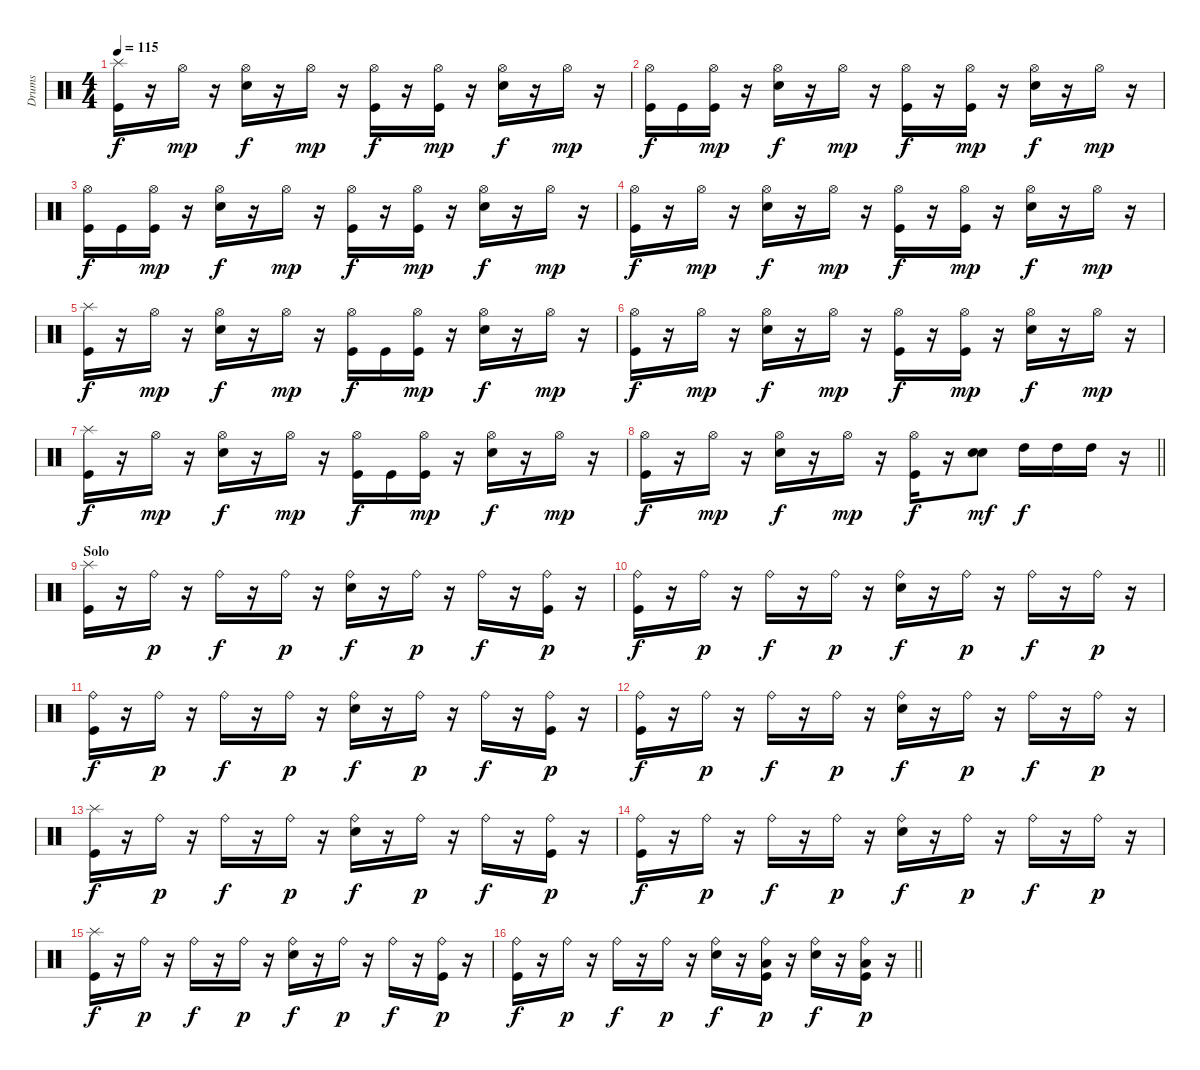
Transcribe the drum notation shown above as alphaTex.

\track ("Drums" "Drums") {instrument percussion}
\staff {score}
\articulation defaults
\ts (4 4)
\tempo 115
\clef neutral
\ks c
("Splash (hit)" "Kick (hit)").16{dy f} r.16 "Hi-Hat (open)".16{dy mp} r.16 ("Hi-Hat (open)" "Electric Snare (hit)").16{dy f} r.16 "Hi-Hat (open)".16{dy mp} r.16 ("Hi-Hat (open)" "Kick (hit)").16{dy f} r.16 ("Kick (hit)" "Hi-Hat (open)").16{dy mp} r.16 ("Hi-Hat (open)" "Electric Snare (hit)").16{dy f} r.16 "Hi-Hat (open)".16{dy mp} r.16 |
("Hi-Hat (open)" "Kick (hit)").16{dy f} "Kick (hit)".16 ("Kick (hit)" "Hi-Hat (open)").16{dy mp} r.16 ("Hi-Hat (open)" "Electric Snare (hit)").16{dy f} r.16 "Hi-Hat (open)".16{dy mp} r.16 ("Hi-Hat (open)" "Kick (hit)").16{dy f} r.16 ("Kick (hit)" "Hi-Hat (open)").16{dy mp} r.16 ("Hi-Hat (open)" "Electric Snare (hit)").16{dy f} r.16 "Hi-Hat (open)".16{dy mp} r.16 |
("Hi-Hat (open)" "Kick (hit)").16{dy f} "Kick (hit)".16 ("Kick (hit)" "Hi-Hat (open)").16{dy mp} r.16 ("Hi-Hat (open)" "Electric Snare (hit)").16{dy f} r.16 "Hi-Hat (open)".16{dy mp} r.16 ("Hi-Hat (open)" "Kick (hit)").16{dy f} r.16 ("Kick (hit)" "Hi-Hat (open)").16{dy mp} r.16 ("Hi-Hat (open)" "Electric Snare (hit)").16{dy f} r.16 "Hi-Hat (open)".16{dy mp} r.16 |
("Hi-Hat (open)" "Kick (hit)").16{dy f} r.16 "Hi-Hat (open)".16{dy mp} r.16 ("Hi-Hat (open)" "Electric Snare (hit)").16{dy f} r.16 "Hi-Hat (open)".16{dy mp} r.16 ("Hi-Hat (open)" "Kick (hit)").16{dy f} r.16 ("Kick (hit)" "Hi-Hat (open)").16{dy mp} r.16 ("Hi-Hat (open)" "Electric Snare (hit)").16{dy f} r.16 "Hi-Hat (open)".16{dy mp} r.16 |
("Splash (hit)" "Kick (hit)").16{dy f} r.16 "Hi-Hat (open)".16{dy mp} r.16 ("Hi-Hat (open)" "Electric Snare (hit)").16{dy f} r.16 "Hi-Hat (open)".16{dy mp} r.16 ("Hi-Hat (open)" "Kick (hit)").16{dy f} "Kick (hit)".16 ("Kick (hit)" "Hi-Hat (open)").16{dy mp} r.16 ("Hi-Hat (open)" "Electric Snare (hit)").16{dy f} r.16 "Hi-Hat (open)".16{dy mp} r.16 |
("Hi-Hat (open)" "Kick (hit)").16{dy f} r.16 "Hi-Hat (open)".16{dy mp} r.16 ("Hi-Hat (open)" "Electric Snare (hit)").16{dy f} r.16 "Hi-Hat (open)".16{dy mp} r.16 ("Hi-Hat (open)" "Kick (hit)").16{dy f} r.16 ("Kick (hit)" "Hi-Hat (open)").16{dy mp} r.16 ("Hi-Hat (open)" "Electric Snare (hit)").16{dy f} r.16 "Hi-Hat (open)".16{dy mp} r.16 |
("Splash (hit)" "Kick (hit)").16{dy f} r.16 "Hi-Hat (open)".16{dy mp} r.16 ("Hi-Hat (open)" "Electric Snare (hit)").16{dy f} r.16 "Hi-Hat (open)".16{dy mp} r.16 ("Hi-Hat (open)" "Kick (hit)").16{dy f} "Kick (hit)".16 ("Kick (hit)" "Hi-Hat (open)").16{dy mp} r.16 ("Hi-Hat (open)" "Electric Snare (hit)").16{dy f} r.16 "Hi-Hat (open)".16{dy mp} r.16 |
\barLineRight lightlight
("Hi-Hat (open)" "Kick (hit)").16{dy f} r.16 "Hi-Hat (open)".16{dy mp} r.16 ("Hi-Hat (open)" "Electric Snare (hit)").16{dy f} r.16 "Hi-Hat (open)".16{dy mp} r.16 ("Hi-Hat (open)" "Kick (hit)").16{dy f} r.16 ("Electric Snare (hit)" "Electric Snare (hit)").8{dy mf} "High Tom (hit)".16{dy f} "High Tom (hit)".16 "High Tom (hit)".16 r.16 |
\section ("" "Solo")
("Splash (hit)" "Kick (hit)").16 r.16 "Ride (bell)".16{dy p} r.16 "Ride (bell)".16{dy f} r.16 "Ride (bell)".16{dy p} r.16 ("Electric Snare (hit)" "Ride (bell)").16{dy f} r.16 "Ride (bell)".16{dy p} r.16 "Ride (bell)".16{dy f} r.16 ("Ride (bell)" "Kick (hit)").16{dy p} r.16 |
("Ride (bell)" "Kick (hit)").16{dy f} r.16 "Ride (bell)".16{dy p} r.16 "Ride (bell)".16{dy f} r.16 "Ride (bell)".16{dy p} r.16 ("Electric Snare (hit)" "Ride (bell)").16{dy f} r.16 "Ride (bell)".16{dy p} r.16 "Ride (bell)".16{dy f} r.16 "Ride (bell)".16{dy p} r.16 |
("Ride (bell)" "Kick (hit)").16{dy f} r.16 "Ride (bell)".16{dy p} r.16 "Ride (bell)".16{dy f} r.16 "Ride (bell)".16{dy p} r.16 ("Electric Snare (hit)" "Ride (bell)").16{dy f} r.16 "Ride (bell)".16{dy p} r.16 "Ride (bell)".16{dy f} r.16 ("Ride (bell)" "Kick (hit)").16{dy p} r.16 |
("Ride (bell)" "Kick (hit)").16{dy f} r.16 "Ride (bell)".16{dy p} r.16 "Ride (bell)".16{dy f} r.16 "Ride (bell)".16{dy p} r.16 ("Electric Snare (hit)" "Ride (bell)").16{dy f} r.16 "Ride (bell)".16{dy p} r.16 "Ride (bell)".16{dy f} r.16 "Ride (bell)".16{dy p} r.16 |
("Splash (hit)" "Kick (hit)").16{dy f} r.16 "Ride (bell)".16{dy p} r.16 "Ride (bell)".16{dy f} r.16 "Ride (bell)".16{dy p} r.16 ("Electric Snare (hit)" "Ride (bell)").16{dy f} r.16 "Ride (bell)".16{dy p} r.16 "Ride (bell)".16{dy f} r.16 ("Ride (bell)" "Kick (hit)").16{dy p} r.16 |
("Ride (bell)" "Kick (hit)").16{dy f} r.16 "Ride (bell)".16{dy p} r.16 "Ride (bell)".16{dy f} r.16 "Ride (bell)".16{dy p} r.16 ("Electric Snare (hit)" "Ride (bell)").16{dy f} r.16 "Ride (bell)".16{dy p} r.16 "Ride (bell)".16{dy f} r.16 "Ride (bell)".16{dy p} r.16 |
("Splash (hit)" "Kick (hit)").16{dy f} r.16 "Ride (bell)".16{dy p} r.16 "Ride (bell)".16{dy f} r.16 "Ride (bell)".16{dy p} r.16 ("Electric Snare (hit)" "Ride (bell)").16{dy f} r.16 "Ride (bell)".16{dy p} r.16 "Ride (bell)".16{dy f} r.16 ("Ride (bell)" "Kick (hit)").16{dy p} r.16 |
\barLineRight lightlight
("Ride (bell)" "Kick (hit)").16{dy f} r.16 "Ride (bell)".16{dy p} r.16 "Ride (bell)".16{dy f} r.16 "Ride (bell)".16{dy p} r.16 ("Electric Snare (hit)" "Ride (bell)").16{dy f} r.16 ("Low Floor Tom (hit)" "Kick (hit)" "Ride (bell)").16{dy p} r.16 ("Electric Snare (hit)" "Ride (bell)").16{dy f} r.16 ("Low Floor Tom (hit)" "Kick (hit)" "Ride (bell)").16{dy p} r.16
